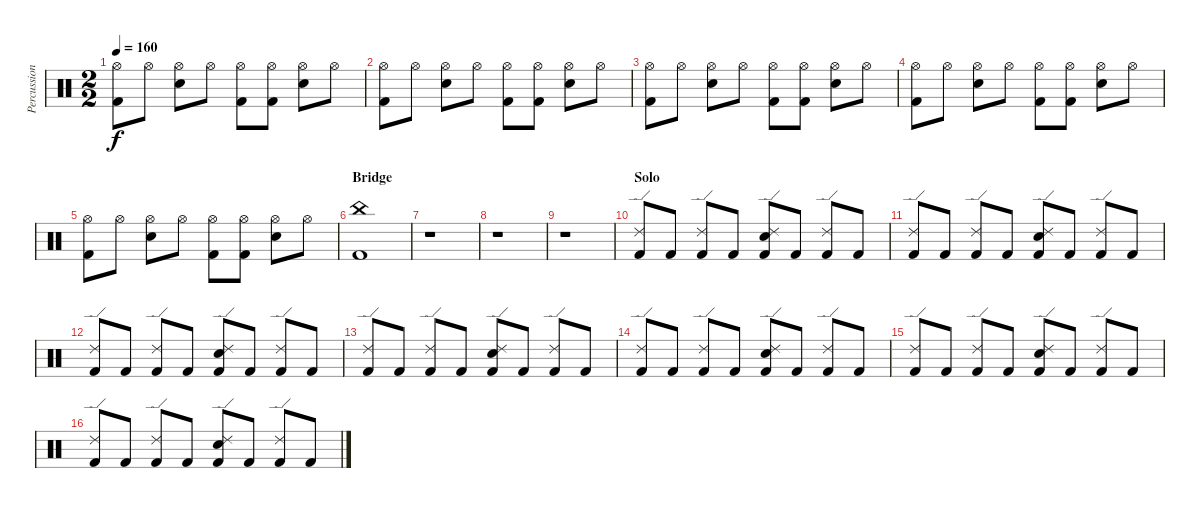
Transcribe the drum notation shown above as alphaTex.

\track ("Percussion" "Percussion") {instrument percussion}
\staff {score}
\articulation defaults
\ts (2 2)
\tempo 160
\clef neutral
\ks c
("Hi-Hat (open)" "Kick (hit) 2").8{dy f} "Hi-Hat (open)".8 ("Hi-Hat (open)" "Snare (hit) 2").8 "Hi-Hat (open)".8 ("Hi-Hat (open)" "Kick (hit) 2").8 ("Hi-Hat (open)" "Kick (hit) 2").8 ("Hi-Hat (open)" "Snare (hit) 2").8 "Hi-Hat (open)".8 |
("Hi-Hat (open)" "Kick (hit) 2").8 "Hi-Hat (open)".8 ("Hi-Hat (open)" "Snare (hit) 2").8 "Hi-Hat (open)".8 ("Hi-Hat (open)" "Kick (hit) 2").8 ("Hi-Hat (open)" "Kick (hit) 2").8 ("Hi-Hat (open)" "Snare (hit) 2").8 "Hi-Hat (open)".8 |
("Hi-Hat (open)" "Kick (hit) 2").8 "Hi-Hat (open)".8 ("Hi-Hat (open)" "Snare (hit) 2").8 "Hi-Hat (open)".8 ("Hi-Hat (open)" "Kick (hit) 2").8 ("Hi-Hat (open)" "Kick (hit) 2").8 ("Hi-Hat (open)" "Snare (hit) 2").8 "Hi-Hat (open)".8 |
("Hi-Hat (open)" "Kick (hit) 2").8 "Hi-Hat (open)".8 ("Hi-Hat (open)" "Snare (hit) 2").8 "Hi-Hat (open)".8 ("Hi-Hat (open)" "Kick (hit) 2").8 ("Hi-Hat (open)" "Kick (hit) 2").8 ("Hi-Hat (open)" "Snare (hit) 2").8 "Hi-Hat (open)".8 |
("Hi-Hat (open)" "Kick (hit) 2").8 "Hi-Hat (open)".8 ("Hi-Hat (open)" "Snare (hit) 2").8 "Hi-Hat (open)".8 ("Hi-Hat (open)" "Kick (hit) 2").8 ("Hi-Hat (open)" "Kick (hit) 2").8 ("Hi-Hat (open)" "Snare (hit) 2").8 "Hi-Hat (open)".8 |
\section ("" "Bridge")
("China (hit)" "Kick (hit) 2").1 |
r.1 |
r.1 |
r.1 |
\section ("" "Solo")
("Ride (edge) 2" "Kick (hit) 2").8 "Kick (hit) 2".8 ("Ride (edge) 2" "Kick (hit) 2").8 "Kick (hit) 2".8 ("Ride (edge) 2" "Snare (hit) 2" "Kick (hit) 2").8 "Kick (hit) 2".8 ("Ride (edge) 2" "Kick (hit) 2").8 "Kick (hit) 2".8 |
("Ride (edge) 2" "Kick (hit) 2").8 "Kick (hit) 2".8 ("Ride (edge) 2" "Kick (hit) 2").8 "Kick (hit) 2".8 ("Ride (edge) 2" "Snare (hit) 2" "Kick (hit) 2").8 "Kick (hit) 2".8 ("Ride (edge) 2" "Kick (hit) 2").8 "Kick (hit) 2".8 |
("Ride (edge) 2" "Kick (hit) 2").8 "Kick (hit) 2".8 ("Ride (edge) 2" "Kick (hit) 2").8 "Kick (hit) 2".8 ("Ride (edge) 2" "Snare (hit) 2" "Kick (hit) 2").8 "Kick (hit) 2".8 ("Ride (edge) 2" "Kick (hit) 2").8 "Kick (hit) 2".8 |
("Ride (edge) 2" "Kick (hit) 2").8 "Kick (hit) 2".8 ("Ride (edge) 2" "Kick (hit) 2").8 "Kick (hit) 2".8 ("Ride (edge) 2" "Snare (hit) 2" "Kick (hit) 2").8 "Kick (hit) 2".8 ("Ride (edge) 2" "Kick (hit) 2").8 "Kick (hit) 2".8 |
("Ride (edge) 2" "Kick (hit) 2").8 "Kick (hit) 2".8 ("Ride (edge) 2" "Kick (hit) 2").8 "Kick (hit) 2".8 ("Ride (edge) 2" "Snare (hit) 2" "Kick (hit) 2").8 "Kick (hit) 2".8 ("Ride (edge) 2" "Kick (hit) 2").8 "Kick (hit) 2".8 |
("Ride (edge) 2" "Kick (hit) 2").8 "Kick (hit) 2".8 ("Ride (edge) 2" "Kick (hit) 2").8 "Kick (hit) 2".8 ("Ride (edge) 2" "Snare (hit) 2" "Kick (hit) 2").8 "Kick (hit) 2".8 ("Ride (edge) 2" "Kick (hit) 2").8 "Kick (hit) 2".8 |
("Ride (edge) 2" "Kick (hit) 2").8 "Kick (hit) 2".8 ("Ride (edge) 2" "Kick (hit) 2").8 "Kick (hit) 2".8 ("Ride (edge) 2" "Snare (hit) 2" "Kick (hit) 2").8 "Kick (hit) 2".8 ("Ride (edge) 2" "Kick (hit) 2").8 "Kick (hit) 2".8
